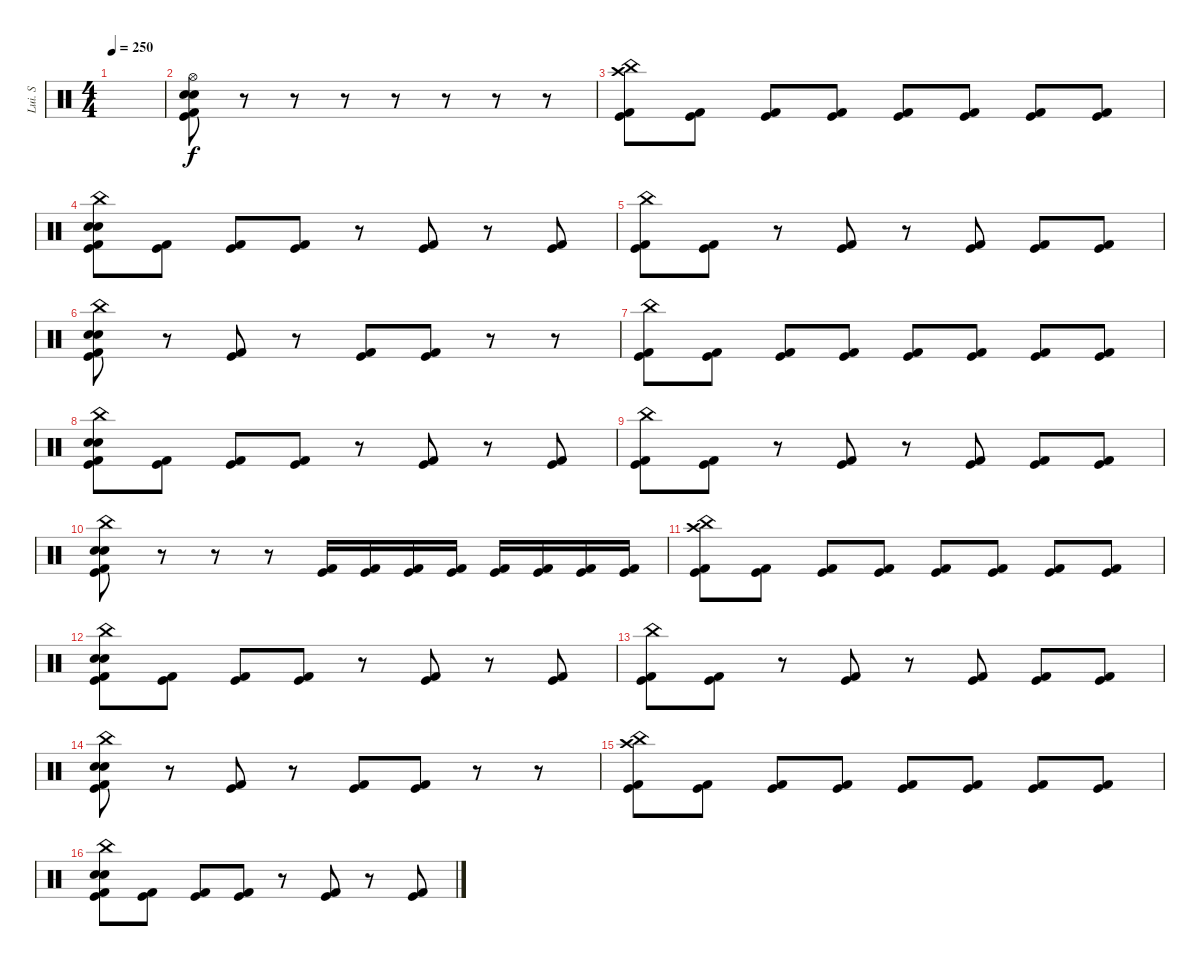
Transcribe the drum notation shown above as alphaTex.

\track ("Lui. S" "Lui. S") {instrument percussion}
\staff {score}
\articulation defaults
\ts (4 4)
\tempo 250
\clef neutral
\ks c
|
("Hi-Hat (open)" "Electric Snare (hit)" "Snare (hit) 2" "Kick (hit) 2" "Kick (hit)").8 r.8{volume 0} r.8 r.8 r.8 r.8 r.8 r.8 |
("China (hit)" "Crash high (hit)" "Kick (hit)" "Kick (hit) 2").8{volume 16} ("Kick (hit)" "Kick (hit) 2").8 ("Kick (hit)" "Kick (hit) 2").8 ("Kick (hit)" "Kick (hit) 2").8 ("Kick (hit)" "Kick (hit) 2").8 ("Kick (hit)" "Kick (hit) 2").8 ("Kick (hit)" "Kick (hit) 2").8 ("Kick (hit)" "Kick (hit) 2").8 |
("China (hit)" "Electric Snare (hit)" "Snare (hit) 2" "Kick (hit)" "Kick (hit) 2").8 ("Kick (hit)" "Kick (hit) 2").8 ("Kick (hit)" "Kick (hit) 2").8 ("Kick (hit)" "Kick (hit) 2").8 r.8 ("Kick (hit)" "Kick (hit) 2").8 r.8 ("Kick (hit)" "Kick (hit) 2").8 |
("China (hit)" "Kick (hit)" "Kick (hit) 2").8 ("Kick (hit)" "Kick (hit) 2").8 r.8 ("Kick (hit)" "Kick (hit) 2").8 r.8 ("Kick (hit)" "Kick (hit) 2").8 ("Kick (hit)" "Kick (hit) 2").8 ("Kick (hit)" "Kick (hit) 2").8 |
("China (hit)" "Electric Snare (hit)" "Snare (hit) 2" "Kick (hit)" "Kick (hit) 2").8 r.8 ("Kick (hit)" "Kick (hit) 2").8 r.8 ("Kick (hit)" "Kick (hit) 2").8 ("Kick (hit)" "Kick (hit) 2").8 r.8 r.8 |
("China (hit)" "Kick (hit)" "Kick (hit) 2").8 ("Kick (hit)" "Kick (hit) 2").8 ("Kick (hit)" "Kick (hit) 2").8 ("Kick (hit)" "Kick (hit) 2").8 ("Kick (hit)" "Kick (hit) 2").8 ("Kick (hit)" "Kick (hit) 2").8 ("Kick (hit)" "Kick (hit) 2").8 ("Kick (hit)" "Kick (hit) 2").8 |
("China (hit)" "Electric Snare (hit)" "Snare (hit) 2" "Kick (hit)" "Kick (hit) 2").8 ("Kick (hit)" "Kick (hit) 2").8 ("Kick (hit)" "Kick (hit) 2").8 ("Kick (hit)" "Kick (hit) 2").8 r.8 ("Kick (hit)" "Kick (hit) 2").8 r.8 ("Kick (hit)" "Kick (hit) 2").8 |
("China (hit)" "Kick (hit)" "Kick (hit) 2").8 ("Kick (hit)" "Kick (hit) 2").8 r.8 ("Kick (hit)" "Kick (hit) 2").8 r.8 ("Kick (hit)" "Kick (hit) 2").8 ("Kick (hit)" "Kick (hit) 2").8 ("Kick (hit)" "Kick (hit) 2").8 |
("China (hit)" "Electric Snare (hit)" "Snare (hit) 2" "Kick (hit)" "Kick (hit) 2").8 r.8 r.8 r.8 ("Kick (hit)" "Kick (hit) 2").16 ("Kick (hit)" "Kick (hit) 2").16 ("Kick (hit)" "Kick (hit) 2").16 ("Kick (hit)" "Kick (hit) 2").16 ("Kick (hit)" "Kick (hit) 2").16 ("Kick (hit)" "Kick (hit) 2").16 ("Kick (hit)" "Kick (hit) 2").16 ("Kick (hit)" "Kick (hit) 2").16 |
("China (hit)" "Crash high (hit)" "Kick (hit)" "Kick (hit) 2").8 ("Kick (hit)" "Kick (hit) 2").8 ("Kick (hit)" "Kick (hit) 2").8 ("Kick (hit)" "Kick (hit) 2").8 ("Kick (hit)" "Kick (hit) 2").8 ("Kick (hit)" "Kick (hit) 2").8 ("Kick (hit)" "Kick (hit) 2").8 ("Kick (hit)" "Kick (hit) 2").8 |
("China (hit)" "Electric Snare (hit)" "Snare (hit) 2" "Kick (hit)" "Kick (hit) 2").8 ("Kick (hit)" "Kick (hit) 2").8 ("Kick (hit)" "Kick (hit) 2").8 ("Kick (hit)" "Kick (hit) 2").8 r.8 ("Kick (hit)" "Kick (hit) 2").8 r.8 ("Kick (hit)" "Kick (hit) 2").8 |
("China (hit)" "Kick (hit)" "Kick (hit) 2").8 ("Kick (hit)" "Kick (hit) 2").8 r.8 ("Kick (hit)" "Kick (hit) 2").8 r.8 ("Kick (hit)" "Kick (hit) 2").8 ("Kick (hit)" "Kick (hit) 2").8 ("Kick (hit)" "Kick (hit) 2").8 |
("China (hit)" "Electric Snare (hit)" "Snare (hit) 2" "Kick (hit)" "Kick (hit) 2").8 r.8 ("Kick (hit)" "Kick (hit) 2").8 r.8 ("Kick (hit)" "Kick (hit) 2").8 ("Kick (hit)" "Kick (hit) 2").8 r.8 r.8 |
("China (hit)" "Crash high (hit)" "Kick (hit)" "Kick (hit) 2").8 ("Kick (hit)" "Kick (hit) 2").8 ("Kick (hit)" "Kick (hit) 2").8 ("Kick (hit)" "Kick (hit) 2").8 ("Kick (hit)" "Kick (hit) 2").8 ("Kick (hit)" "Kick (hit) 2").8 ("Kick (hit)" "Kick (hit) 2").8 ("Kick (hit)" "Kick (hit) 2").8 |
("China (hit)" "Electric Snare (hit)" "Snare (hit) 2" "Kick (hit)" "Kick (hit) 2").8 ("Kick (hit)" "Kick (hit) 2").8 ("Kick (hit)" "Kick (hit) 2").8 ("Kick (hit)" "Kick (hit) 2").8 r.8 ("Kick (hit)" "Kick (hit) 2").8 r.8 ("Kick (hit)" "Kick (hit) 2").8
